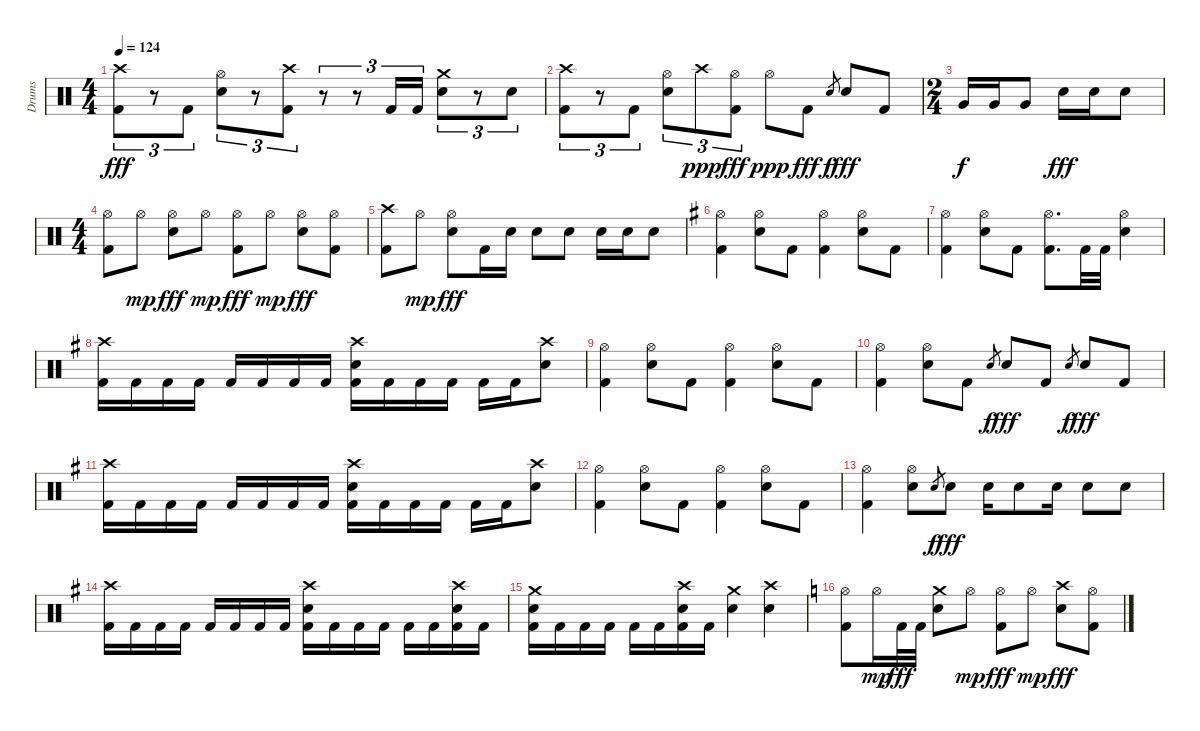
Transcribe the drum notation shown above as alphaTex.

\track ("Drums" "Drums") {instrument percussion}
\staff {score}
\articulation defaults
\ts (4 4)
\tempo 124
\clef neutral
\ks c
("Crash high (hit)" "Kick (hit) 2").8{tu (3 2) dy fff} r.8{tu (3 2)} "Kick (hit) 2".8{tu (3 2)} ("Hi-Hat (open)" "Electric Snare (hit)").8{tu (3 2)} r.8{tu (3 2)} ("Crash high (hit)" "Kick (hit) 2").8{tu (3 2)} r.8{tu (3 2)} r.8{tu (3 2)} "Kick (hit) 2".16{tu (3 2)} "Kick (hit) 2".16{tu (3 2)} ("Crash medium (hit)" "Electric Snare (hit)").8{tu (3 2)} r.8{tu (3 2)} "Electric Snare (hit)".8{tu (3 2)} |
("Crash high (hit)" "Kick (hit) 2").8{tu (3 2)} r.8{tu (3 2)} "Kick (hit) 2".8{tu (3 2)} ("Hi-Hat (open)" "Electric Snare (hit)").8{tu (3 2)} "Crash high (hit)".8{tu (3 2) dy ppp} ("Hi-Hat (open)" "Kick (hit) 2").8{tu (3 2) dy fff} "Hi-Hat (open)".8{dy ppp} "Kick (hit) 2".8{dy fff} "Electric Snare (hit)".8{gr dy f} "Electric Snare (hit)".8{dy fff} "Kick (hit) 2".8 |
\ts (2 4)
"Very Low Tom (hit)".16{dy f} "Very Low Tom (hit)".16 "Very Low Tom (hit)".8 "Electric Snare (hit)".16{dy fff} "Electric Snare (hit)".16 "Electric Snare (hit)".8 |
\ts (4 4)
("Hi-Hat (open)" "Kick (hit) 2").8 "Hi-Hat (open)".8{dy mp} ("Hi-Hat (open)" "Electric Snare (hit)").8{dy fff} "Hi-Hat (open)".8{dy mp} ("Hi-Hat (open)" "Kick (hit) 2").8{dy fff} "Hi-Hat (open)".8{dy mp} ("Hi-Hat (open)" "Electric Snare (hit)").8{dy fff} ("Hi-Hat (open)" "Kick (hit) 2").8 |
("Crash high (hit)" "Kick (hit) 2").8 "Hi-Hat (open)".8{dy mp} ("Hi-Hat (open)" "Electric Snare (hit)").8{dy fff} "Kick (hit) 2".16 "Electric Snare (hit)".16 "Electric Snare (hit)".8 "Electric Snare (hit)".8 "Electric Snare (hit)".16 "Electric Snare (hit)".16 "Electric Snare (hit)".8 |
\ks g
("Hi-Hat (open)" "Kick (hit) 2").4 ("Hi-Hat (open)" "Electric Snare (hit)").8 "Kick (hit) 2".8 ("Hi-Hat (open)" "Kick (hit) 2").4 ("Hi-Hat (open)" "Electric Snare (hit)").8 "Kick (hit) 2".8 |
("Hi-Hat (open)" "Kick (hit) 2").4 ("Hi-Hat (open)" "Electric Snare (hit)").8 "Kick (hit) 2".8 ("Hi-Hat (open)" "Kick (hit) 2").8{d} "Kick (hit) 2".32 "Kick (hit) 2".32 ("Hi-Hat (open)" "Electric Snare (hit)").4 |
("Crash high (hit)" "Kick (hit) 2").16 "Kick (hit) 2".16 "Kick (hit) 2".16 "Kick (hit) 2".16 "Kick (hit) 2".16 "Kick (hit) 2".16 "Kick (hit) 2".16 "Kick (hit) 2".16 ("Crash high (hit)" "Electric Snare (hit)" "Kick (hit) 2").16 "Kick (hit) 2".16 "Kick (hit) 2".16 "Kick (hit) 2".16 "Kick (hit) 2".16 "Kick (hit) 2".16 ("Crash high (hit)" "Electric Snare (hit)").8 |
("Hi-Hat (open)" "Kick (hit) 2").4 ("Hi-Hat (open)" "Electric Snare (hit)").8 "Kick (hit) 2".8 ("Hi-Hat (open)" "Kick (hit) 2").4 ("Hi-Hat (open)" "Electric Snare (hit)").8 "Kick (hit) 2".8 |
("Hi-Hat (open)" "Kick (hit) 2").4 ("Hi-Hat (open)" "Electric Snare (hit)").8 "Kick (hit) 2".8 "Electric Snare (hit)".8{gr dy f} "Electric Snare (hit)".8{dy fff} "Kick (hit) 2".8 "Electric Snare (hit)".8{gr dy f} "Electric Snare (hit)".8{dy fff} "Kick (hit) 2".8 |
("Crash high (hit)" "Kick (hit) 2").16 "Kick (hit) 2".16 "Kick (hit) 2".16 "Kick (hit) 2".16 "Kick (hit) 2".16 "Kick (hit) 2".16 "Kick (hit) 2".16 "Kick (hit) 2".16 ("Crash high (hit)" "Electric Snare (hit)" "Kick (hit) 2").16 "Kick (hit) 2".16 "Kick (hit) 2".16 "Kick (hit) 2".16 "Kick (hit) 2".16 "Kick (hit) 2".16 ("Crash high (hit)" "Electric Snare (hit)").8 |
("Hi-Hat (open)" "Kick (hit) 2").4 ("Hi-Hat (open)" "Electric Snare (hit)").8 "Kick (hit) 2".8 ("Hi-Hat (open)" "Kick (hit) 2").4 ("Hi-Hat (open)" "Electric Snare (hit)").8 "Kick (hit) 2".8 |
("Hi-Hat (open)" "Kick (hit) 2").4 ("Hi-Hat (open)" "Electric Snare (hit)").8 "Electric Snare (hit)".8{gr dy f} "Electric Snare (hit)".8{dy fff} "Electric Snare (hit)".16 "Electric Snare (hit)".8 "Electric Snare (hit)".16 "Electric Snare (hit)".8 "Electric Snare (hit)".8 |
("Crash high (hit)" "Kick (hit) 2").16 "Kick (hit) 2".16 "Kick (hit) 2".16 "Kick (hit) 2".16 "Kick (hit) 2".16 "Kick (hit) 2".16 "Kick (hit) 2".16 "Kick (hit) 2".16 ("Crash high (hit)" "Electric Snare (hit)" "Kick (hit) 2").16 "Kick (hit) 2".16 "Kick (hit) 2".16 "Kick (hit) 2".16 "Kick (hit) 2".16 "Kick (hit) 2".16 ("Crash high (hit)" "Electric Snare (hit)" "Kick (hit) 2").16 "Kick (hit) 2".16 |
("Crash medium (hit)" "Electric Snare (hit)" "Kick (hit) 2").16 "Kick (hit) 2".16 "Kick (hit) 2".16 "Kick (hit) 2".16 "Kick (hit) 2".16 "Kick (hit) 2".16 ("Crash high (hit)" "Electric Snare (hit)" "Kick (hit) 2").16 "Kick (hit) 2".16 ("Crash medium (hit)" "Electric Snare (hit)").4 ("Crash high (hit)" "Electric Snare (hit)").4 |
\ks c
("Hi-Hat (open)" "Kick (hit) 2").8 "Hi-Hat (open)".16{dy mp} "Kick (hit) 2".32{dy fff} "Kick (hit) 2".32 ("Crash medium (hit)" "Electric Snare (hit)").8 "Hi-Hat (open)".8{dy mp} ("Hi-Hat (open)" "Kick (hit) 2").8{dy fff} "Hi-Hat (open)".8{dy mp} ("Crash high (hit)" "Electric Snare (hit)").8{dy fff} ("Hi-Hat (open)" "Kick (hit) 2").8
